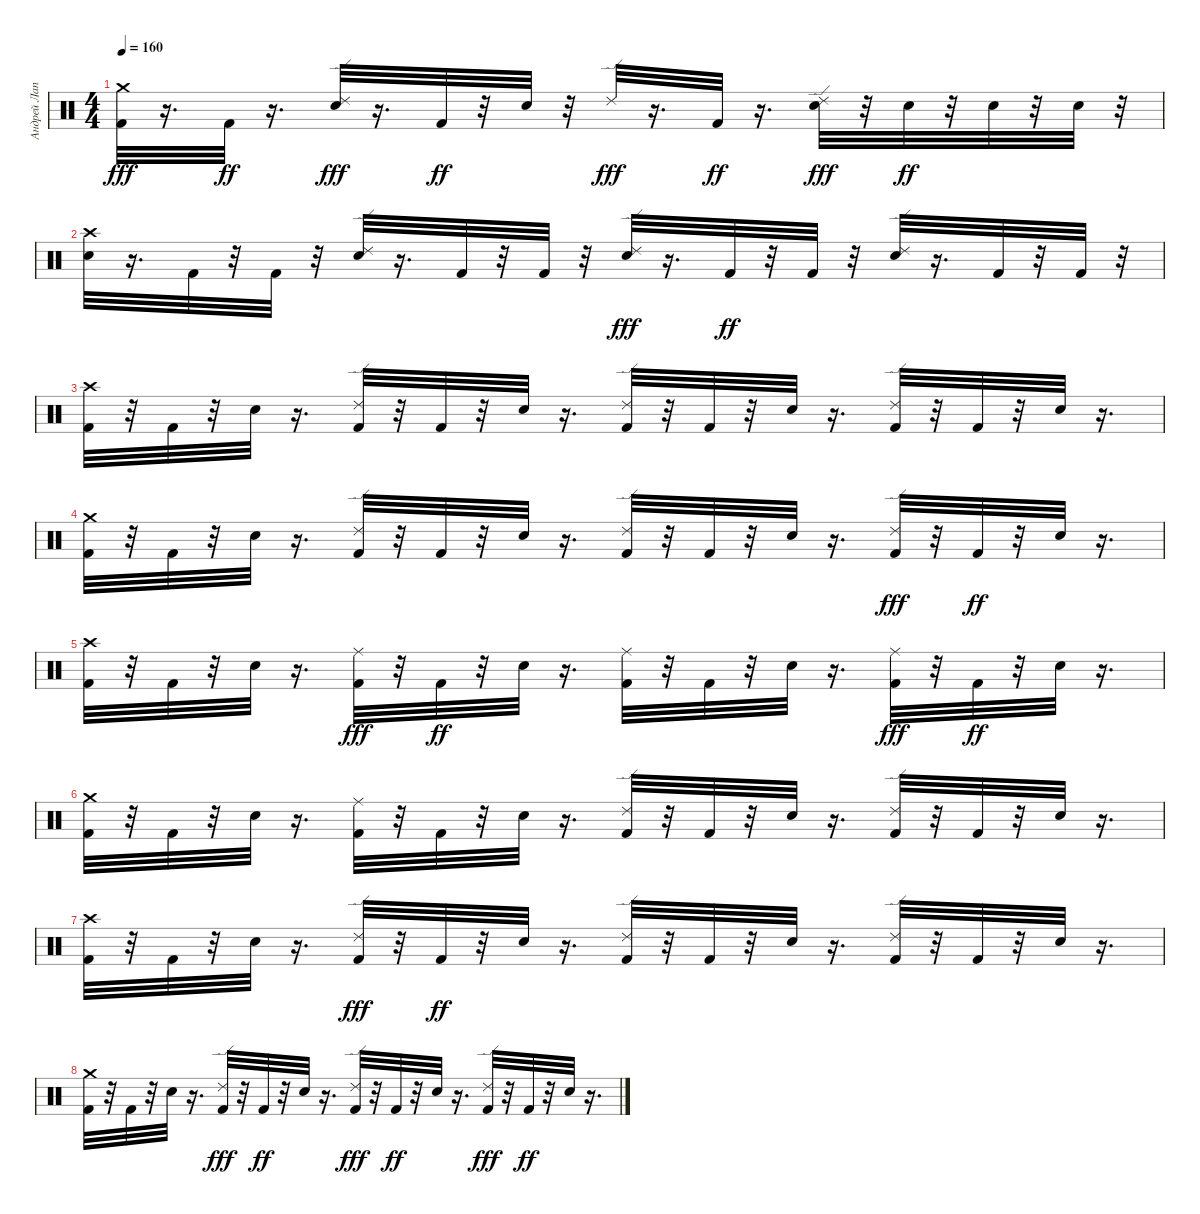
\track ("Андрей Лаптев" "Андрей Лап") {instrument percussion}
\staff {score}
\articulation defaults
\ts (4 4)
\tempo 160
\clef neutral
\ks c
("Crash medium (hit)" "Kick (hit) 2").32{dy fff} r.16{d} "Kick (hit) 2".32{dy ff} r.16{d} ("Electric Snare (hit)" "Ride (edge) 2").32{dy fff} r.16{d} "Kick (hit) 2".32{dy ff} r.32 "Electric Snare (hit)".32 r.32 "Ride (edge) 2".32{dy fff} r.16{d} "Kick (hit) 2".32{dy ff} r.16{d} ("Electric Snare (hit)" "Ride (edge) 2").32{dy fff} r.32 "Electric Snare (hit)".32{dy ff} r.32 "Electric Snare (hit)".32 r.32 "Electric Snare (hit)".32 r.32 |
("Electric Snare (hit)" "Crash high (hit)").32 r.16{d} "Kick (hit) 2".32 r.32 "Kick (hit) 2".32 r.32 ("Ride (edge) 2" "Electric Snare (hit)").32 r.16{d} "Kick (hit) 2".32 r.32 "Kick (hit) 2".32 r.32 ("Electric Snare (hit)" "Ride (edge) 2").32{dy fff} r.16{d} "Kick (hit) 2".32{dy ff} r.32 "Kick (hit) 2".32 r.32 ("Ride (edge) 2" "Electric Snare (hit)").32 r.16{d} "Kick (hit) 2".32 r.32 "Kick (hit) 2".32 r.32 |
("Crash high (hit)" "Kick (hit) 2").32 r.32 "Kick (hit) 2".32 r.32 "Electric Snare (hit)".32 r.16{d} ("Ride (edge) 2" "Kick (hit) 2").32 r.32 "Kick (hit) 2".32 r.32 "Electric Snare (hit)".32 r.16{d} ("Ride (edge) 2" "Kick (hit) 2").32 r.32 "Kick (hit) 2".32 r.32 "Electric Snare (hit)".32 r.16{d} ("Ride (edge) 2" "Kick (hit) 2").32 r.32 "Kick (hit) 2".32 r.32 "Electric Snare (hit)".32 r.16{d} |
("Kick (hit) 2" "Crash medium (hit)").32 r.32 "Kick (hit) 2".32 r.32 "Electric Snare (hit)".32 r.16{d} ("Ride (edge) 2" "Kick (hit) 2").32 r.32 "Kick (hit) 2".32 r.32 "Electric Snare (hit)".32 r.16{d} ("Ride (edge) 2" "Kick (hit) 2").32 r.32 "Kick (hit) 2".32 r.32 "Electric Snare (hit)".32 r.16{d} ("Kick (hit) 2" "Ride (edge) 2").32{dy fff} r.32 "Kick (hit) 2".32{dy ff} r.32 "Electric Snare (hit)".32 r.16{d} |
("Crash high (hit)" "Kick (hit) 2").32 r.32 "Kick (hit) 2".32 r.32 "Electric Snare (hit)".32 r.16{d} ("Kick (hit) 2" "Ride (middle)").32{dy fff} r.32 "Kick (hit) 2".32{dy ff} r.32 "Electric Snare (hit)".32 r.16{d} ("Ride (middle)" "Kick (hit) 2").32 r.32 "Kick (hit) 2".32 r.32 "Electric Snare (hit)".32 r.16{d} ("Kick (hit) 2" "Ride (middle)").32{dy fff} r.32 "Kick (hit) 2".32{dy ff} r.32 "Electric Snare (hit)".32 r.16{d} |
("Kick (hit) 2" "Crash medium (hit)").32 r.32 "Kick (hit) 2".32 r.32 "Electric Snare (hit)".32 r.16{d} ("Ride (middle)" "Kick (hit) 2").32 r.32 "Kick (hit) 2".32 r.32 "Electric Snare (hit)".32 r.16{d} ("Ride (edge) 2" "Kick (hit) 2").32 r.32 "Kick (hit) 2".32 r.32 "Electric Snare (hit)".32 r.16{d} ("Ride (edge) 2" "Kick (hit) 2").32 r.32 "Kick (hit) 2".32 r.32 "Electric Snare (hit)".32 r.16{d} |
("Kick (hit) 2" "Crash high (hit)").32 r.32 "Kick (hit) 2".32 r.32 "Electric Snare (hit)".32 r.16{d} ("Kick (hit) 2" "Ride (edge) 2").32{dy fff} r.32 "Kick (hit) 2".32{dy ff} r.32 "Electric Snare (hit)".32 r.16{d} ("Ride (edge) 2" "Kick (hit) 2").32 r.32 "Kick (hit) 2".32 r.32 "Electric Snare (hit)".32 r.16{d} ("Ride (edge) 2" "Kick (hit) 2").32 r.32 "Kick (hit) 2".32 r.32 "Electric Snare (hit)".32 r.16{d} |
("Kick (hit) 2" "Crash medium (hit)").32 r.32 "Kick (hit) 2".32 r.32 "Electric Snare (hit)".32 r.16{d} ("Kick (hit) 2" "Ride (edge) 2").32{dy fff} r.32 "Kick (hit) 2".32{dy ff} r.32 "Electric Snare (hit)".32 r.16{d} ("Kick (hit) 2" "Ride (edge) 2").32{dy fff} r.32 "Kick (hit) 2".32{dy ff} r.32 "Electric Snare (hit)".32 r.16{d} ("Kick (hit) 2" "Ride (edge) 2").32{dy fff} r.32 "Kick (hit) 2".32{dy ff} r.32 "Electric Snare (hit)".32 r.16{d}
